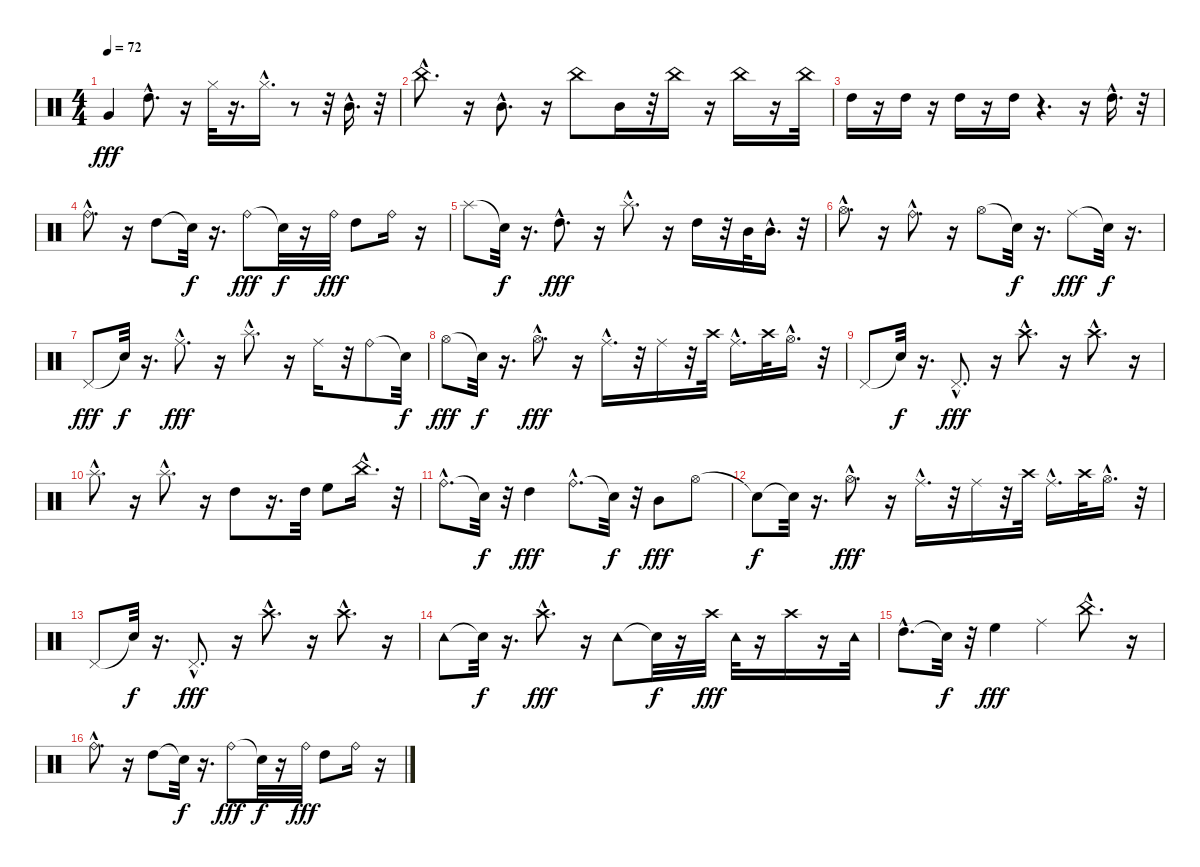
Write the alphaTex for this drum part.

\track "" {instrument percussion}
\staff {score}
\articulation defaults
\ts (4 4)
\tempo 72
\clef neutral
\ks c "Very Low Tom (hit)".4{dy fff} "High Tom (hit)"{hac}.8{d}
r.16 "Hi-Hat (closed)".32 r.16{d} "Hi-Hat (closed)"{hac}.16{d} r.8 r.32 "Mid Tom (hit)"{hac}.16{d} r.32 |
"China (hit)"{hac}.8{d} r.16 "Mid Tom (hit)"{hac}.8{d} r.16 "China (hit)".8 "Mid Tom (hit)".16 r.32 "China (hit)".16 r.16 "China (hit)".16 r.16 "China (hit)".32 |
"High Tom (hit)".16 r.16 "High Tom (hit)".16 r.16 "High Tom (hit)".16 r.16 "High Tom (hit)".16 r.4{d} r.16 "High Tom (hit)"{hac}.16{d} r.32 |
"Ride (bell)"{hac}.8{d} r.16 "High Tom (hit)".8 "Snare (hit)"{t}.32{dy f} r.16{d} "Ride (bell)".8{dy fff} "Snare (hit)"{t}.32{dy f} r.16 "Ride (bell)".32{dy fff} "High Tom (hit)".8 "Ride (bell)".16 r.16 |
"Splash (hit)".8 "Snare (hit)"{t}.32{dy f} r.16{d} "High Tom (hit)"{hac}.8{d dy fff} r.16 "Splash (hit)"{hac}.8{d} r.16 "High Tom (hit)".16 r.32 "Mid Tom (hit)".32 "Mid Tom (hit)"{hac}.16{d} r.32 |
"Hi-Hat (open)"{hac}.8{d} r.16 "Ride (bell)"{hac}.8{d} r.16 "Hi-Hat (open)".8 "Snare (hit)"{t}.32{dy f} r.16{d} "Ride (middle)".8{dy fff} "Snare (hit)"{t}.32{dy f} r.16{d} |
"Pedal Hi-Hat (hit)".8{dy fff} "Snare (hit)"{t}.32{dy f} r.16{d} "Ride (middle)"{hac}.8{d dy fff} r.16 "Splash (hit)"{hac}.8{d} r.16 "Ride (middle)".16 r.32 "Ride (bell)".8 "Snare (hit)"{t}.32{dy f} |
"Hi-Hat (open)".8{dy fff} "Snare (hit)"{t}.32{dy f} r.16{d} "Hi-Hat (open)"{hac}.8{d dy fff} r.16 "Ride (middle)"{hac}.16{d} r.32 "Ride (middle)".16 r.32 "Crash high (hit)".32 "Ride (middle)"{hac}.16{d} "Crash high (hit)".32 "Hi-Hat (open)"{hac}.16{d} r.32 |
"Pedal Hi-Hat (hit)".8 "Snare (hit)"{t}.32{dy f} r.16{d} "Pedal Hi-Hat (hit)"{hac}.8{d dy fff} r.16 "Crash high (hit)"{hac}.8{d} r.16 "Crash high (hit)"{hac}.8{d} r.16 |
"Splash (hit)"{hac}.8{d} r.16 "Splash (hit)"{hac}.8{d} r.16 "High Tom (hit)".8 r.16{d} "High Tom (hit)".32 "High Floor Tom (hit)".8 "China (hit)"{hac}.16{d} r.32 |
"Ride (bell)"{hac}.8{d} "Snare (hit)"{t}.32{dy f} r.32 "High Tom (hit)".4{dy fff} "Ride (bell)"{hac}.8{d} "Snare (hit)"{t}.32{dy f} r.32 "Mid Tom (hit)".8{dy fff} "Hi-Hat (open)".8 |
"Snare (hit)"{t}.8{dy f} "Snare (hit)"{t}.32 r.16{d} "Hi-Hat (open)"{hac}.8{d dy fff} r.16 "Ride (middle)"{hac}.16{d} r.32 "Ride (middle)".16 r.32 "Crash high (hit)".32 "Ride (middle)"{hac}.16{d} "Crash high (hit)".32 "Hi-Hat (open)"{hac}.16{d} r.32 |
"Pedal Hi-Hat (hit)".8 "Snare (hit)"{t}.32{dy f} r.16{d} "Pedal Hi-Hat (hit)"{hac}.8{d dy fff} r.16 "Crash high (hit)"{hac}.8{d} r.16 "Crash high (hit)"{hac}.8{d} r.16 |
"Tambourine (hit)".8 "Snare (hit)"{t}.32{dy f} r.16{d} "Crash high (hit)"{hac}.8{d dy fff} r.16 "Tambourine (hit)".8 "Snare (hit)"{t}.32{dy f} r.16 "Crash high (hit)".32{dy fff} "Tambourine (hit)".32 r.16 "Crash high (hit)".16 r.16 "Tambourine (hit)".32 |
"High Tom (hit)"{hac}.8{d} "Snare (hit)"{t}.32{dy f} r.32 "High Floor Tom (hit)".4{dy fff} "Ride (middle)".4 "China (hit)"{hac}.8{d} r.16 |
"Ride (bell)"{hac}.8{d} r.16 "High Tom (hit)".8 "Snare (hit)"{t}.32{dy f} r.16{d} "Ride (bell)".8{dy fff} "Snare (hit)"{t}.32{dy f} r.16 "Ride (bell)".32{dy fff} "High Tom (hit)".8 "Ride (bell)".16 r.16
